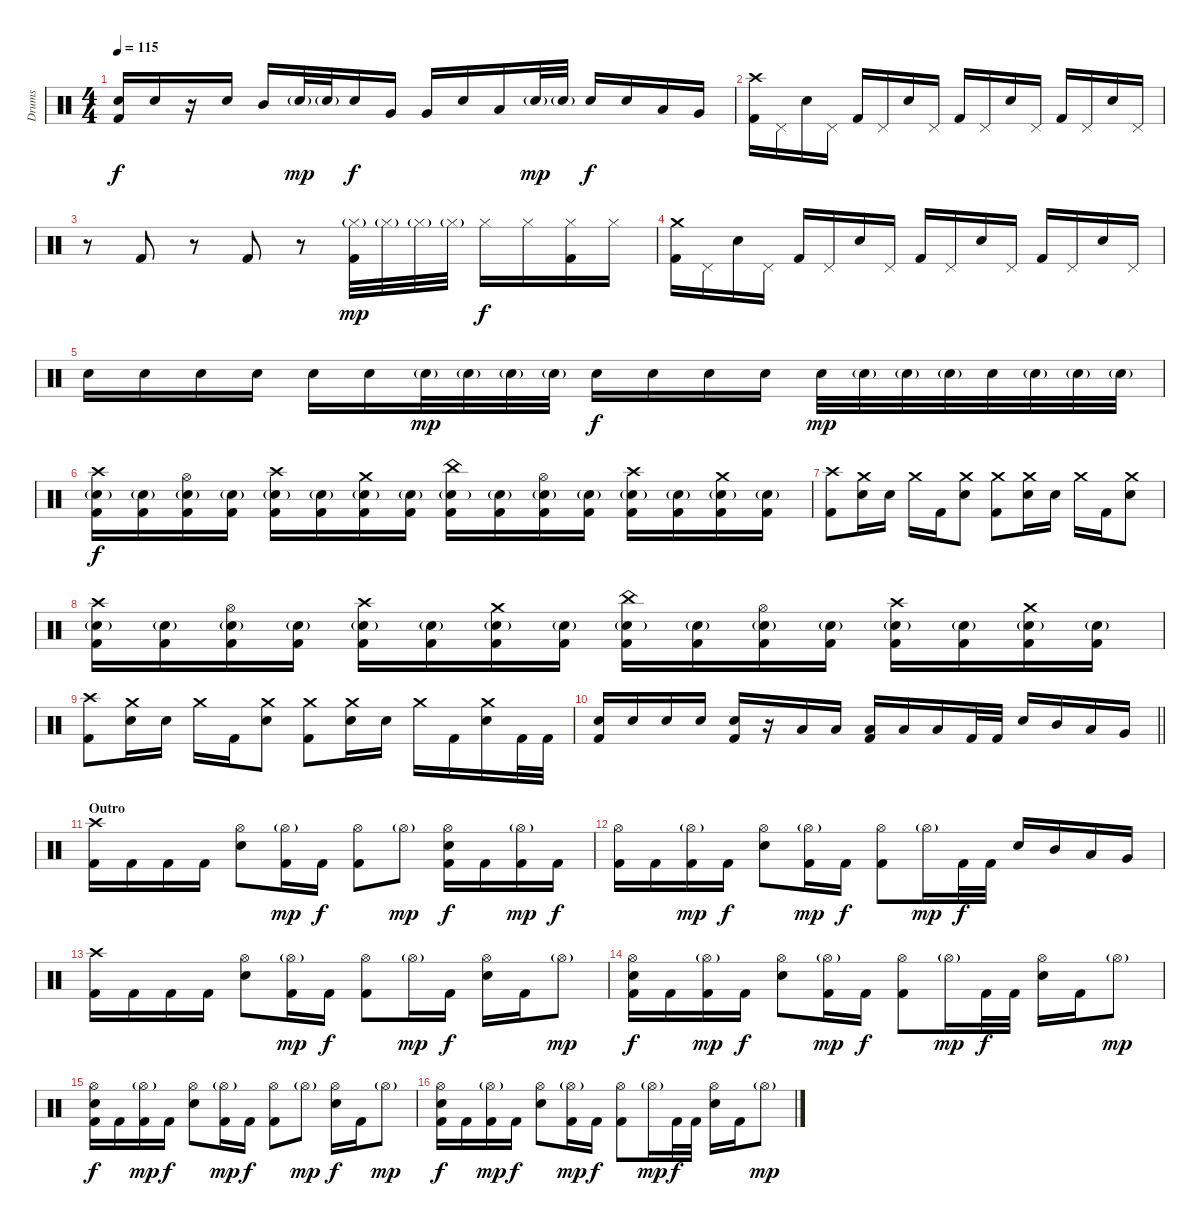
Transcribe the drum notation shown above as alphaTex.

\track ("Drums" "Drums") {instrument percussion}
\staff {score}
\articulation defaults
\ts (4 4)
\tempo 115
\clef neutral
\ks c
("Electric Snare (hit)" "Kick (hit) 2").16{dy f} "Electric Snare (hit)".16 r.16 "Electric Snare (hit)".16 "Mid Tom (hit)".16 "Electric Snare (hit)"{g}.32{dy mp} "Electric Snare (hit)"{g}.32 "Electric Snare (hit)".16{dy f} "Very Low Tom (hit)".16 "Very Low Tom (hit)".16 "Electric Snare (hit)".16 "Low Tom (hit)".16 "Electric Snare (hit)"{g}.32{dy mp} "Electric Snare (hit)"{g}.32 "Electric Snare (hit)".16{dy f} "Electric Snare (hit)".16 "Low Tom (hit)".16 "Very Low Tom (hit)".16 |
("Crash high (hit)" "Kick (hit) 2").16 "Pedal Hi-Hat (hit)".16 "Electric Snare (hit)".16 "Pedal Hi-Hat (hit)".16 "Kick (hit) 2".16 "Pedal Hi-Hat (hit)".16 "Electric Snare (hit)".16 "Pedal Hi-Hat (hit)".16 "Kick (hit) 2".16 "Pedal Hi-Hat (hit)".16 "Electric Snare (hit)".16 "Pedal Hi-Hat (hit)".16 "Kick (hit) 2".16 "Pedal Hi-Hat (hit)".16 "Electric Snare (hit)".16 "Pedal Hi-Hat (hit)".16 |
r.8 "Kick (hit) 2".8 r.8 "Kick (hit) 2".8 r.8 ("Hi-Hat (closed)"{g} "Kick (hit) 2").32{dy mp} "Hi-Hat (closed)"{g}.32 "Hi-Hat (closed)"{g}.32 "Hi-Hat (closed)"{g}.32 "Hi-Hat (closed)".16{dy f} "Hi-Hat (closed)".16 ("Hi-Hat (closed)" "Kick (hit) 2").16 "Hi-Hat (closed)".16 |
("Crash medium (hit)" "Kick (hit) 2").16 "Pedal Hi-Hat (hit)".16 "Electric Snare (hit)".16 "Pedal Hi-Hat (hit)".16 "Kick (hit) 2".16 "Pedal Hi-Hat (hit)".16 "Electric Snare (hit)".16 "Pedal Hi-Hat (hit)".16 "Kick (hit) 2".16 "Pedal Hi-Hat (hit)".16 "Electric Snare (hit)".16 "Pedal Hi-Hat (hit)".16 "Kick (hit) 2".16 "Pedal Hi-Hat (hit)".16 "Electric Snare (hit)".16 "Pedal Hi-Hat (hit)".16 |
"Electric Snare (hit)".16 "Electric Snare (hit)".16 "Electric Snare (hit)".16 "Electric Snare (hit)".16 "Electric Snare (hit)".16 "Electric Snare (hit)".16 "Electric Snare (hit)"{g}.32{dy mp} "Electric Snare (hit)"{g}.32 "Electric Snare (hit)"{g}.32 "Electric Snare (hit)"{g}.32 "Electric Snare (hit)".16{dy f} "Electric Snare (hit)".16 "Electric Snare (hit)".16 "Electric Snare (hit)".16 "Electric Snare (hit)".32{dy mp} "Electric Snare (hit)"{g}.32 "Electric Snare (hit)"{g}.32 "Electric Snare (hit)"{g}.32 "Electric Snare (hit)".32 "Electric Snare (hit)"{g}.32 "Electric Snare (hit)"{g}.32 "Electric Snare (hit)"{g}.32 |
("Crash high (hit)" "Electric Snare (hit)"{g} "Kick (hit) 2").16{dy f} ("Electric Snare (hit)"{g} "Kick (hit) 2").16 ("Hi-Hat (open)" "Electric Snare (hit)"{g} "Kick (hit) 2").16 ("Electric Snare (hit)"{g} "Kick (hit) 2").16 ("Crash high (hit)" "Electric Snare (hit)"{g} "Kick (hit) 2").16 ("Electric Snare (hit)"{g} "Kick (hit) 2").16 ("Crash medium (hit)" "Electric Snare (hit)"{g} "Kick (hit) 2").16 ("Electric Snare (hit)"{g} "Kick (hit) 2").16 ("China (hit)" "Electric Snare (hit)"{g} "Kick (hit) 2").16 ("Electric Snare (hit)"{g} "Kick (hit) 2").16 ("Hi-Hat (open)" "Electric Snare (hit)"{g} "Kick (hit) 2").16 ("Electric Snare (hit)"{g} "Kick (hit) 2").16 ("Crash high (hit)" "Electric Snare (hit)"{g} "Kick (hit) 2").16 ("Electric Snare (hit)"{g} "Kick (hit) 2").16 ("Crash medium (hit)" "Electric Snare (hit)"{g} "Kick (hit) 2").16 ("Electric Snare (hit)"{g} "Kick (hit) 2").16 |
("Crash high (hit)" "Kick (hit) 2").8 ("Crash medium (hit)" "Electric Snare (hit)").16 "Electric Snare (hit)".16 "Crash medium (hit)".16 "Kick (hit) 2".16 ("Crash medium (hit)" "Electric Snare (hit)").8 ("Crash medium (hit)" "Kick (hit) 2").8 ("Crash medium (hit)" "Electric Snare (hit)").16 "Electric Snare (hit)".16 "Crash medium (hit)".16 "Kick (hit) 2".16 ("Crash medium (hit)" "Electric Snare (hit)").8 |
("Crash high (hit)" "Electric Snare (hit)"{g} "Kick (hit) 2").16 ("Electric Snare (hit)"{g} "Kick (hit) 2").16 ("Hi-Hat (open)" "Electric Snare (hit)"{g} "Kick (hit) 2").16 ("Electric Snare (hit)"{g} "Kick (hit) 2").16 ("Crash high (hit)" "Electric Snare (hit)"{g} "Kick (hit) 2").16 ("Electric Snare (hit)"{g} "Kick (hit) 2").16 ("Crash medium (hit)" "Electric Snare (hit)"{g} "Kick (hit) 2").16 ("Electric Snare (hit)"{g} "Kick (hit) 2").16 ("China (hit)" "Electric Snare (hit)"{g} "Kick (hit) 2").16 ("Electric Snare (hit)"{g} "Kick (hit) 2").16 ("Hi-Hat (open)" "Electric Snare (hit)"{g} "Kick (hit) 2").16 ("Electric Snare (hit)"{g} "Kick (hit) 2").16 ("Crash high (hit)" "Electric Snare (hit)"{g} "Kick (hit) 2").16 ("Electric Snare (hit)"{g} "Kick (hit) 2").16 ("Crash medium (hit)" "Electric Snare (hit)"{g} "Kick (hit) 2").16 ("Electric Snare (hit)"{g} "Kick (hit) 2").16 |
("Crash high (hit)" "Kick (hit) 2").8 ("Crash medium (hit)" "Electric Snare (hit)").16 "Electric Snare (hit)".16 "Crash medium (hit)".16 "Kick (hit) 2".16 ("Crash medium (hit)" "Electric Snare (hit)").8 ("Crash medium (hit)" "Kick (hit) 2").8 ("Crash medium (hit)" "Electric Snare (hit)").16 "Electric Snare (hit)".16 "Crash medium (hit)".16 "Kick (hit) 2".16 ("Crash medium (hit)" "Electric Snare (hit)").16 "Kick (hit) 2".32 "Kick (hit) 2".32 |
\barLineRight lightlight
("Electric Snare (hit)" "Kick (hit) 2").16 "Electric Snare (hit)".16 "Electric Snare (hit)".16 "Electric Snare (hit)".16 ("Electric Snare (hit)" "Kick (hit) 2").16 r.16 "Low Tom (hit)".16 "Low Tom (hit)".16 ("Low Tom (hit)" "Kick (hit) 2").16 "Low Tom (hit)".16 "Low Tom (hit)".16 "Kick (hit) 2".32 "Kick (hit) 2".32 "Electric Snare (hit)".16 "Mid Tom (hit)".16 "Low Tom (hit)".16 "Very Low Tom (hit)".16 |
\section ("" "Outro")
("Crash high (hit)" "Kick (hit) 2").16 "Kick (hit) 2".16 "Kick (hit) 2".16 "Kick (hit) 2".16 ("Hi-Hat (open)" "Electric Snare (hit)").8 ("Hi-Hat (open)"{g} "Kick (hit) 2").16{dy mp} "Kick (hit) 2".16{dy f} ("Hi-Hat (open)" "Kick (hit) 2").8 "Hi-Hat (open)"{g}.8{dy mp} ("Hi-Hat (open)" "Electric Snare (hit)" "Kick (hit) 2").16{dy f} "Kick (hit) 2".16 ("Hi-Hat (open)"{g} "Kick (hit) 2").16{dy mp} "Kick (hit) 2".16{dy f} |
("Hi-Hat (open)" "Kick (hit) 2").16 "Kick (hit) 2".16 ("Hi-Hat (open)"{g} "Kick (hit) 2").16{dy mp} "Kick (hit) 2".16{dy f} ("Hi-Hat (open)" "Electric Snare (hit)").8 ("Hi-Hat (open)"{g} "Kick (hit) 2").16{dy mp} "Kick (hit) 2".16{dy f} ("Hi-Hat (open)" "Kick (hit) 2").8 "Hi-Hat (open)"{g}.16{dy mp} "Kick (hit) 2".32{dy f} "Kick (hit) 2".32 "Electric Snare (hit)".16 "Mid Tom (hit)".16 "Low Tom (hit)".16 "Very Low Tom (hit)".16 |
("Crash high (hit)" "Kick (hit) 2").16 "Kick (hit) 2".16 "Kick (hit) 2".16 "Kick (hit) 2".16 ("Hi-Hat (open)" "Electric Snare (hit)").8 ("Hi-Hat (open)"{g} "Kick (hit) 2").16{dy mp} "Kick (hit) 2".16{dy f} ("Hi-Hat (open)" "Kick (hit) 2").8 "Hi-Hat (open)"{g}.16{dy mp} "Kick (hit) 2".16{dy f} ("Hi-Hat (open)" "Electric Snare (hit)").16 "Kick (hit) 2".16 "Hi-Hat (open)"{g}.8{dy mp} |
("Hi-Hat (open)" "Electric Snare (hit)" "Kick (hit) 2").16{dy f} "Kick (hit) 2".16 ("Hi-Hat (open)"{g} "Kick (hit) 2").16{dy mp} "Kick (hit) 2".16{dy f} ("Hi-Hat (open)" "Electric Snare (hit)").8 ("Hi-Hat (open)"{g} "Kick (hit) 2").16{dy mp} "Kick (hit) 2".16{dy f} ("Hi-Hat (open)" "Kick (hit) 2").8 "Hi-Hat (open)"{g}.16{dy mp} "Kick (hit) 2".32{dy f} "Kick (hit) 2".32 ("Hi-Hat (open)" "Electric Snare (hit)").16 "Kick (hit) 2".16 "Hi-Hat (open)"{g}.8{dy mp} |
("Hi-Hat (open)" "Electric Snare (hit)" "Kick (hit) 2").16{dy f} "Kick (hit) 2".16 ("Hi-Hat (open)"{g} "Kick (hit) 2").16{dy mp} "Kick (hit) 2".16{dy f} ("Hi-Hat (open)" "Electric Snare (hit)").8 ("Hi-Hat (open)"{g} "Kick (hit) 2").16{dy mp} "Kick (hit) 2".16{dy f} ("Hi-Hat (open)" "Kick (hit) 2").8 "Hi-Hat (open)"{g}.8{dy mp} ("Hi-Hat (open)" "Electric Snare (hit)").16{dy f} "Kick (hit) 2".16 "Hi-Hat (open)"{g}.8{dy mp} |
("Hi-Hat (open)" "Electric Snare (hit)" "Kick (hit) 2").16{dy f} "Kick (hit) 2".16 ("Hi-Hat (open)"{g} "Kick (hit) 2").16{dy mp} "Kick (hit) 2".16{dy f} ("Hi-Hat (open)" "Electric Snare (hit)").8 ("Hi-Hat (open)"{g} "Kick (hit) 2").16{dy mp} "Kick (hit) 2".16{dy f} ("Hi-Hat (open)" "Kick (hit) 2").8 "Hi-Hat (open)"{g}.16{dy mp} "Kick (hit) 2".32{dy f} "Kick (hit) 2".32 ("Hi-Hat (open)" "Electric Snare (hit)").16 "Kick (hit) 2".16 "Hi-Hat (open)"{g}.8{dy mp}
